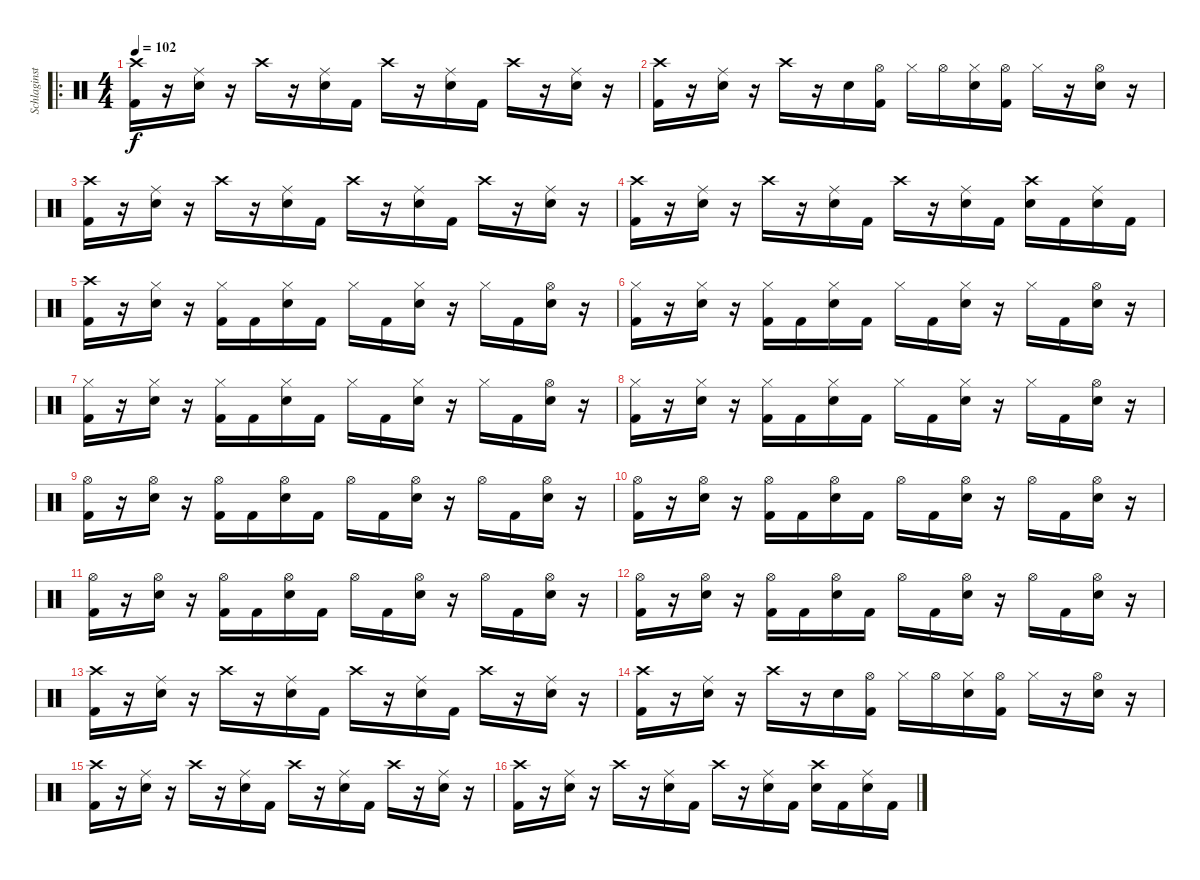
\track ("Schlaginstrumente - Auswahl" "Schlaginst") {instrument percussion}
\staff {score}
\articulation defaults
\ro
\ts (4 4)
\tempo 102
\clef neutral
\ks c
("Crash high (hit)" "Kick (hit) 2").16{dy f} r.16 ("Ride (middle)" "Snare (hit) 2").16 r.16 "Crash high (hit)".16 r.16 ("Ride (middle)" "Snare (hit) 2").16 "Kick (hit) 2".16 "Crash high (hit)".16 r.16 ("Ride (middle)" "Snare (hit) 2").16 "Kick (hit) 2".16 "Crash high (hit)".16 r.16 ("Ride (middle)" "Snare (hit) 2").16 r.16 |
("Crash high (hit)" "Kick (hit) 2").16 r.16 ("Ride (middle)" "Snare (hit) 2").16 r.16 "Crash high (hit)".16 r.16 "Snare (hit) 2".16 ("Hi-Hat (open)" "Kick (hit) 2").16 "Hi-Hat (closed)".16 "Hi-Hat (open)".16 ("Hi-Hat (closed)" "Snare (hit) 2").16 ("Hi-Hat (open)" "Kick (hit) 2").16 "Hi-Hat (closed)".16 r.16 ("Hi-Hat (open)" "Snare (hit) 2").16 r.16 |
("Crash high (hit)" "Kick (hit) 2").16 r.16 ("Ride (middle)" "Snare (hit) 2").16 r.16 "Crash high (hit)".16 r.16 ("Ride (middle)" "Snare (hit) 2").16 "Kick (hit) 2".16 "Crash high (hit)".16 r.16 ("Ride (middle)" "Snare (hit) 2").16 "Kick (hit) 2".16 "Crash high (hit)".16 r.16 ("Ride (middle)" "Snare (hit) 2").16 r.16 |
("Crash high (hit)" "Kick (hit) 2").16 r.16 ("Ride (middle)" "Snare (hit) 2").16 r.16 "Crash high (hit)".16 r.16 ("Ride (middle)" "Snare (hit) 2").16 "Kick (hit) 2".16 "Crash high (hit)".16 r.16 ("Ride (middle)" "Snare (hit) 2").16 "Kick (hit) 2".16 ("Crash high (hit)" "Snare (hit) 2").16 "Kick (hit) 2".16 ("Ride (middle)" "Snare (hit) 2").16 "Kick (hit) 2".16 |
("Crash high (hit)" "Kick (hit) 2").16 r.16 ("Hi-Hat (closed)" "Snare (hit) 2").16 r.16 ("Hi-Hat (closed)" "Kick (hit) 2").16 "Kick (hit) 2".16 ("Hi-Hat (closed)" "Snare (hit) 2").16 "Kick (hit) 2".16 "Hi-Hat (closed)".16 "Kick (hit) 2".16 ("Hi-Hat (closed)" "Snare (hit) 2").16 r.16 "Hi-Hat (closed)".16 "Kick (hit) 2".16 ("Hi-Hat (open)" "Snare (hit) 2").16 r.16 |
("Hi-Hat (closed)" "Kick (hit) 2").16 r.16 ("Hi-Hat (closed)" "Snare (hit) 2").16 r.16 ("Hi-Hat (closed)" "Kick (hit) 2").16 "Kick (hit) 2".16 ("Hi-Hat (closed)" "Snare (hit) 2").16 "Kick (hit) 2".16 "Hi-Hat (closed)".16 "Kick (hit) 2".16 ("Hi-Hat (closed)" "Snare (hit) 2").16 r.16 "Hi-Hat (closed)".16 "Kick (hit) 2".16 ("Hi-Hat (open)" "Snare (hit) 2").16 r.16 |
("Hi-Hat (closed)" "Kick (hit) 2").16 r.16 ("Hi-Hat (closed)" "Snare (hit) 2").16 r.16 ("Hi-Hat (closed)" "Kick (hit) 2").16 "Kick (hit) 2".16 ("Hi-Hat (closed)" "Snare (hit) 2").16 "Kick (hit) 2".16 "Hi-Hat (closed)".16 "Kick (hit) 2".16 ("Hi-Hat (closed)" "Snare (hit) 2").16 r.16 "Hi-Hat (closed)".16 "Kick (hit) 2".16 ("Hi-Hat (open)" "Snare (hit) 2").16 r.16 |
("Hi-Hat (closed)" "Kick (hit) 2").16 r.16 ("Hi-Hat (closed)" "Snare (hit) 2").16 r.16 ("Hi-Hat (closed)" "Kick (hit) 2").16 "Kick (hit) 2".16 ("Hi-Hat (closed)" "Snare (hit) 2").16 "Kick (hit) 2".16 "Hi-Hat (closed)".16 "Kick (hit) 2".16 ("Hi-Hat (closed)" "Snare (hit) 2").16 r.16 "Hi-Hat (closed)".16 "Kick (hit) 2".16 ("Hi-Hat (open)" "Snare (hit) 2").16 r.16 |
("Hi-Hat (open)" "Kick (hit) 2").16 r.16 ("Hi-Hat (open)" "Snare (hit) 2").16 r.16 ("Hi-Hat (open)" "Kick (hit) 2").16 "Kick (hit) 2".16 ("Hi-Hat (open)" "Snare (hit) 2").16 "Kick (hit) 2".16 "Hi-Hat (open)".16 "Kick (hit) 2".16 ("Hi-Hat (open)" "Snare (hit) 2").16 r.16 "Hi-Hat (open)".16 "Kick (hit) 2".16 ("Hi-Hat (open)" "Snare (hit) 2").16 r.16 |
("Hi-Hat (open)" "Kick (hit) 2").16 r.16 ("Hi-Hat (open)" "Snare (hit) 2").16 r.16 ("Hi-Hat (open)" "Kick (hit) 2").16 "Kick (hit) 2".16 ("Hi-Hat (open)" "Snare (hit) 2").16 "Kick (hit) 2".16 "Hi-Hat (open)".16 "Kick (hit) 2".16 ("Hi-Hat (open)" "Snare (hit) 2").16 r.16 "Hi-Hat (open)".16 "Kick (hit) 2".16 ("Hi-Hat (open)" "Snare (hit) 2").16 r.16 |
("Hi-Hat (open)" "Kick (hit) 2").16 r.16 ("Hi-Hat (open)" "Snare (hit) 2").16 r.16 ("Hi-Hat (open)" "Kick (hit) 2").16 "Kick (hit) 2".16 ("Hi-Hat (open)" "Snare (hit) 2").16 "Kick (hit) 2".16 "Hi-Hat (open)".16 "Kick (hit) 2".16 ("Hi-Hat (open)" "Snare (hit) 2").16 r.16 "Hi-Hat (open)".16 "Kick (hit) 2".16 ("Hi-Hat (open)" "Snare (hit) 2").16 r.16 |
("Hi-Hat (open)" "Kick (hit) 2").16 r.16 ("Hi-Hat (open)" "Snare (hit) 2").16 r.16 ("Hi-Hat (open)" "Kick (hit) 2").16 "Kick (hit) 2".16 ("Hi-Hat (open)" "Snare (hit) 2").16 "Kick (hit) 2".16 "Hi-Hat (open)".16 "Kick (hit) 2".16 ("Hi-Hat (open)" "Snare (hit) 2").16 r.16 "Hi-Hat (open)".16 "Kick (hit) 2".16 ("Hi-Hat (open)" "Snare (hit) 2").16 r.16 |
("Crash high (hit)" "Kick (hit) 2").16 r.16 ("Ride (middle)" "Snare (hit) 2").16 r.16 "Crash high (hit)".16 r.16 ("Ride (middle)" "Snare (hit) 2").16 "Kick (hit) 2".16 "Crash high (hit)".16 r.16 ("Ride (middle)" "Snare (hit) 2").16 "Kick (hit) 2".16 "Crash high (hit)".16 r.16 ("Ride (middle)" "Snare (hit) 2").16 r.16 |
("Crash high (hit)" "Kick (hit) 2").16 r.16 ("Ride (middle)" "Snare (hit) 2").16 r.16 "Crash high (hit)".16 r.16 "Snare (hit) 2".16 ("Hi-Hat (open)" "Kick (hit) 2").16 "Hi-Hat (closed)".16 "Hi-Hat (open)".16 ("Hi-Hat (closed)" "Snare (hit) 2").16 ("Hi-Hat (open)" "Kick (hit) 2").16 "Hi-Hat (closed)".16 r.16 ("Hi-Hat (open)" "Snare (hit) 2").16 r.16 |
("Crash high (hit)" "Kick (hit) 2").16 r.16 ("Ride (middle)" "Snare (hit) 2").16 r.16 "Crash high (hit)".16 r.16 ("Ride (middle)" "Snare (hit) 2").16 "Kick (hit) 2".16 "Crash high (hit)".16 r.16 ("Ride (middle)" "Snare (hit) 2").16 "Kick (hit) 2".16 "Crash high (hit)".16 r.16 ("Ride (middle)" "Snare (hit) 2").16 r.16 |
("Crash high (hit)" "Kick (hit) 2").16 r.16 ("Ride (middle)" "Snare (hit) 2").16 r.16 "Crash high (hit)".16 r.16 ("Ride (middle)" "Snare (hit) 2").16 "Kick (hit) 2".16 "Crash high (hit)".16 r.16 ("Ride (middle)" "Snare (hit) 2").16 "Kick (hit) 2".16 ("Crash high (hit)" "Snare (hit) 2").16 "Kick (hit) 2".16 ("Ride (middle)" "Snare (hit) 2").16 "Kick (hit) 2".16
